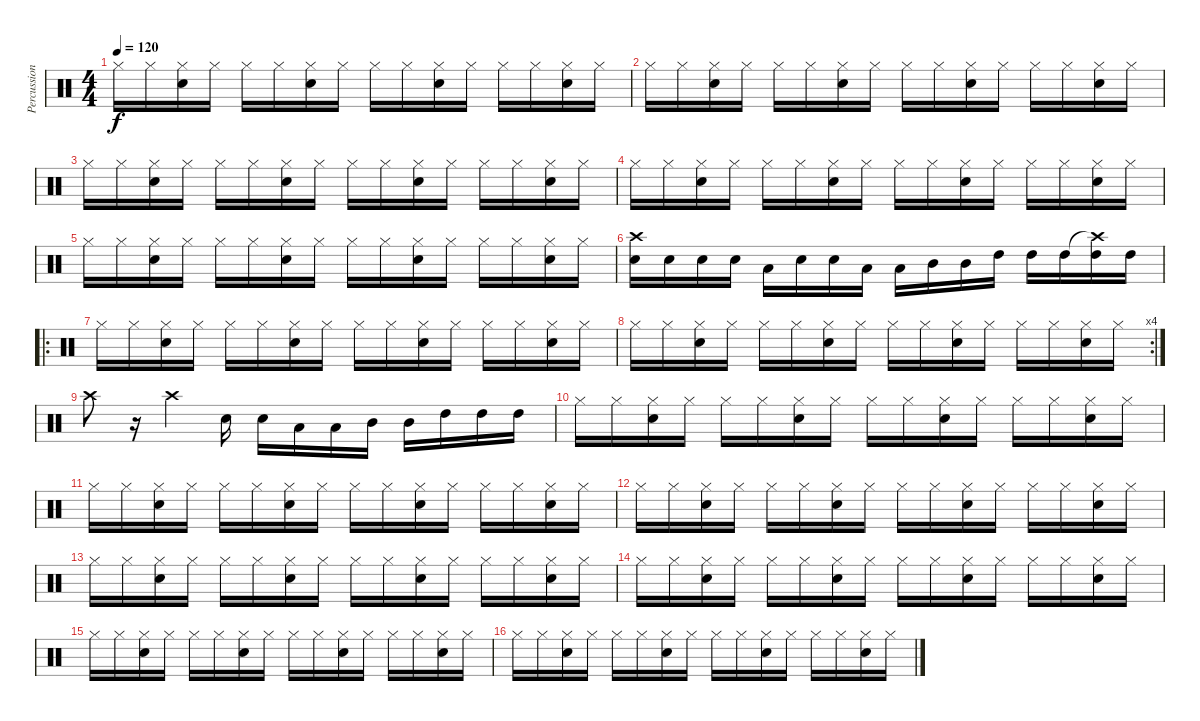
\track ("Percussions" "Percussion") {instrument percussion}
\staff {score}
\articulation defaults
\ts (4 4)
\tempo 120
\clef neutral
\ks c "Hi-Hat (closed)".16{dy f} "Hi-Hat (closed)".16
("Hi-Hat (closed)" "Snare (hit) 2").16 "Hi-Hat (closed)".16 "Hi-Hat (closed)".16 "Hi-Hat (closed)".16 ("Hi-Hat (closed)" "Snare (hit) 2").16 "Hi-Hat (closed)".16 "Hi-Hat (closed)".16 "Hi-Hat (closed)".16 ("Hi-Hat (closed)" "Snare (hit) 2").16 "Hi-Hat (closed)".16 "Hi-Hat (closed)".16 "Hi-Hat (closed)".16 ("Hi-Hat (closed)" "Snare (hit) 2").16 "Hi-Hat (closed)".16 |
"Hi-Hat (closed)".16 "Hi-Hat (closed)".16 ("Hi-Hat (closed)" "Snare (hit) 2").16 "Hi-Hat (closed)".16 "Hi-Hat (closed)".16 "Hi-Hat (closed)".16 ("Hi-Hat (closed)" "Snare (hit) 2").16 "Hi-Hat (closed)".16 "Hi-Hat (closed)".16 "Hi-Hat (closed)".16 ("Hi-Hat (closed)" "Snare (hit) 2").16 "Hi-Hat (closed)".16 "Hi-Hat (closed)".16 "Hi-Hat (closed)".16 ("Hi-Hat (closed)" "Snare (hit) 2").16 "Hi-Hat (closed)".16 |
"Hi-Hat (closed)".16 "Hi-Hat (closed)".16 ("Hi-Hat (closed)" "Snare (hit) 2").16 "Hi-Hat (closed)".16 "Hi-Hat (closed)".16 "Hi-Hat (closed)".16 ("Hi-Hat (closed)" "Snare (hit) 2").16 "Hi-Hat (closed)".16 "Hi-Hat (closed)".16 "Hi-Hat (closed)".16 ("Hi-Hat (closed)" "Snare (hit) 2").16 "Hi-Hat (closed)".16 "Hi-Hat (closed)".16 "Hi-Hat (closed)".16 ("Hi-Hat (closed)" "Snare (hit) 2").16 "Hi-Hat (closed)".16 |
"Hi-Hat (closed)".16 "Hi-Hat (closed)".16 ("Hi-Hat (closed)" "Snare (hit) 2").16 "Hi-Hat (closed)".16 "Hi-Hat (closed)".16 "Hi-Hat (closed)".16 ("Hi-Hat (closed)" "Snare (hit) 2").16 "Hi-Hat (closed)".16 "Hi-Hat (closed)".16 "Hi-Hat (closed)".16 ("Hi-Hat (closed)" "Snare (hit) 2").16 "Hi-Hat (closed)".16 "Hi-Hat (closed)".16 "Hi-Hat (closed)".16 ("Hi-Hat (closed)" "Snare (hit) 2").16 "Hi-Hat (closed)".16 |
"Hi-Hat (closed)".16 "Hi-Hat (closed)".16 ("Hi-Hat (closed)" "Snare (hit) 2").16 "Hi-Hat (closed)".16 "Hi-Hat (closed)".16 "Hi-Hat (closed)".16 ("Hi-Hat (closed)" "Snare (hit) 2").16 "Hi-Hat (closed)".16 "Hi-Hat (closed)".16 "Hi-Hat (closed)".16 ("Hi-Hat (closed)" "Snare (hit) 2").16 "Hi-Hat (closed)".16 "Hi-Hat (closed)".16 "Hi-Hat (closed)".16 ("Hi-Hat (closed)" "Snare (hit) 2").16 "Hi-Hat (closed)".16 |
("Crash high (hit)" "Snare (hit) 2").16 "Snare (hit) 2".16 "Snare (hit) 2".16 "Snare (hit) 2".16 "Low Floor Tom (hit)".16 "Snare (hit) 2".16 "Snare (hit) 2".16 "Low Floor Tom (hit)".16 "Low Floor Tom (hit)".16 "Mid Tom (hit)".16 "Mid Tom (hit)".16 "High Tom (hit)".16 "High Tom (hit)".16 "High Tom (hit)".16 ("Crash high (hit)"{t} "High Tom (hit)").16 "High Tom (hit)".16 |
\ro "Hi-Hat (closed)".16 "Hi-Hat (closed)".16
("Hi-Hat (closed)" "Snare (hit) 2").16 "Hi-Hat (closed)".16 "Hi-Hat (closed)".16 "Hi-Hat (closed)".16 ("Hi-Hat (closed)" "Snare (hit) 2").16 "Hi-Hat (closed)".16 "Hi-Hat (closed)".16 "Hi-Hat (closed)".16 ("Hi-Hat (closed)" "Snare (hit) 2").16 "Hi-Hat (closed)".16 "Hi-Hat (closed)".16 "Hi-Hat (closed)".16 ("Hi-Hat (closed)" "Snare (hit) 2").16 "Hi-Hat (closed)".16 |
\rc 4 "Hi-Hat (closed)".16 "Hi-Hat (closed)".16
("Hi-Hat (closed)" "Snare (hit) 2").16 "Hi-Hat (closed)".16 "Hi-Hat (closed)".16 "Hi-Hat (closed)".16 ("Hi-Hat (closed)" "Snare (hit) 2").16 "Hi-Hat (closed)".16 "Hi-Hat (closed)".16 "Hi-Hat (closed)".16 ("Hi-Hat (closed)" "Snare (hit) 2").16 "Hi-Hat (closed)".16 "Hi-Hat (closed)".16 "Hi-Hat (closed)".16 ("Hi-Hat (closed)" "Snare (hit) 2").16 "Hi-Hat (closed)".16 |
"Crash high (hit)".8 r.16 "Crash high (hit)".4 "Snare (hit) 2".16 "Snare (hit) 2".16 "Low Floor Tom (hit)".16 "Low Floor Tom (hit)".16 "Mid Tom (hit)".16 "Mid Tom (hit)".16 "High Tom (hit)".16 "High Tom (hit)".16 "High Tom (hit)".16 |
"Hi-Hat (closed)".16 "Hi-Hat (closed)".16 ("Hi-Hat (closed)" "Snare (hit) 2").16 "Hi-Hat (closed)".16 "Hi-Hat (closed)".16 "Hi-Hat (closed)".16 ("Hi-Hat (closed)" "Snare (hit) 2").16 "Hi-Hat (closed)".16 "Hi-Hat (closed)".16 "Hi-Hat (closed)".16 ("Hi-Hat (closed)" "Snare (hit) 2").16 "Hi-Hat (closed)".16 "Hi-Hat (closed)".16 "Hi-Hat (closed)".16 ("Hi-Hat (closed)" "Snare (hit) 2").16 "Hi-Hat (closed)".16 |
"Hi-Hat (closed)".16 "Hi-Hat (closed)".16 ("Hi-Hat (closed)" "Snare (hit) 2").16 "Hi-Hat (closed)".16 "Hi-Hat (closed)".16 "Hi-Hat (closed)".16 ("Hi-Hat (closed)" "Snare (hit) 2").16 "Hi-Hat (closed)".16 "Hi-Hat (closed)".16 "Hi-Hat (closed)".16 ("Hi-Hat (closed)" "Snare (hit) 2").16 "Hi-Hat (closed)".16 "Hi-Hat (closed)".16 "Hi-Hat (closed)".16 ("Hi-Hat (closed)" "Snare (hit) 2").16 "Hi-Hat (closed)".16 |
"Hi-Hat (closed)".16 "Hi-Hat (closed)".16 ("Hi-Hat (closed)" "Snare (hit) 2").16 "Hi-Hat (closed)".16 "Hi-Hat (closed)".16 "Hi-Hat (closed)".16 ("Hi-Hat (closed)" "Snare (hit) 2").16 "Hi-Hat (closed)".16 "Hi-Hat (closed)".16 "Hi-Hat (closed)".16 ("Hi-Hat (closed)" "Snare (hit) 2").16 "Hi-Hat (closed)".16 "Hi-Hat (closed)".16 "Hi-Hat (closed)".16 ("Hi-Hat (closed)" "Snare (hit) 2").16 "Hi-Hat (closed)".16 |
"Hi-Hat (closed)".16 "Hi-Hat (closed)".16 ("Hi-Hat (closed)" "Snare (hit) 2").16 "Hi-Hat (closed)".16 "Hi-Hat (closed)".16 "Hi-Hat (closed)".16 ("Hi-Hat (closed)" "Snare (hit) 2").16 "Hi-Hat (closed)".16 "Hi-Hat (closed)".16 "Hi-Hat (closed)".16 ("Hi-Hat (closed)" "Snare (hit) 2").16 "Hi-Hat (closed)".16 "Hi-Hat (closed)".16 "Hi-Hat (closed)".16 ("Hi-Hat (closed)" "Snare (hit) 2").16 "Hi-Hat (closed)".16 |
"Hi-Hat (closed)".16 "Hi-Hat (closed)".16 ("Hi-Hat (closed)" "Snare (hit) 2").16 "Hi-Hat (closed)".16 "Hi-Hat (closed)".16 "Hi-Hat (closed)".16 ("Hi-Hat (closed)" "Snare (hit) 2").16 "Hi-Hat (closed)".16 "Hi-Hat (closed)".16 "Hi-Hat (closed)".16 ("Hi-Hat (closed)" "Snare (hit) 2").16 "Hi-Hat (closed)".16 "Hi-Hat (closed)".16 "Hi-Hat (closed)".16 ("Hi-Hat (closed)" "Snare (hit) 2").16 "Hi-Hat (closed)".16 |
"Hi-Hat (closed)".16 "Hi-Hat (closed)".16 ("Hi-Hat (closed)" "Snare (hit) 2").16 "Hi-Hat (closed)".16 "Hi-Hat (closed)".16 "Hi-Hat (closed)".16 ("Hi-Hat (closed)" "Snare (hit) 2").16 "Hi-Hat (closed)".16 "Hi-Hat (closed)".16 "Hi-Hat (closed)".16 ("Hi-Hat (closed)" "Snare (hit) 2").16 "Hi-Hat (closed)".16 "Hi-Hat (closed)".16 "Hi-Hat (closed)".16 ("Hi-Hat (closed)" "Snare (hit) 2").16 "Hi-Hat (closed)".16 |
"Hi-Hat (closed)".16 "Hi-Hat (closed)".16 ("Hi-Hat (closed)" "Snare (hit) 2").16 "Hi-Hat (closed)".16 "Hi-Hat (closed)".16 "Hi-Hat (closed)".16 ("Hi-Hat (closed)" "Snare (hit) 2").16 "Hi-Hat (closed)".16 "Hi-Hat (closed)".16 "Hi-Hat (closed)".16 ("Hi-Hat (closed)" "Snare (hit) 2").16 "Hi-Hat (closed)".16 "Hi-Hat (closed)".16 "Hi-Hat (closed)".16 ("Hi-Hat (closed)" "Snare (hit) 2").16 "Hi-Hat (closed)".16
